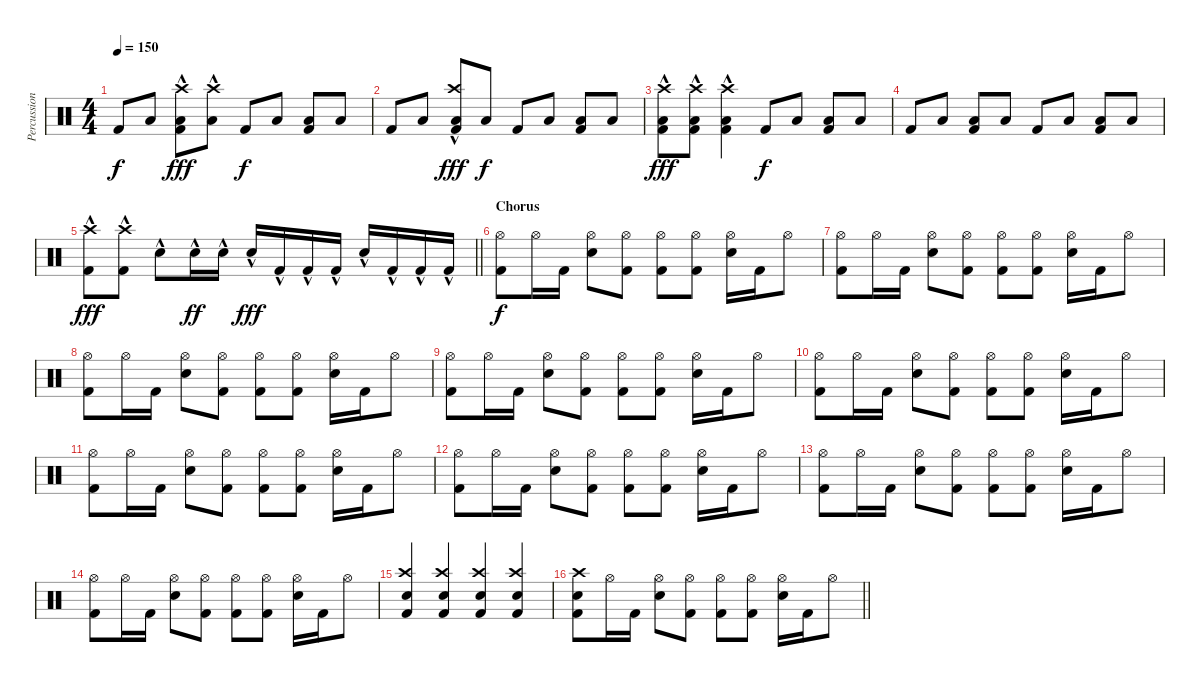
\track ("Percussion" "Percussion") {instrument percussion}
\staff {score}
\articulation defaults
\ts (4 4)
\tempo 150
\clef neutral
\ks c "Kick (hit) 2".8{dy f} "Low Floor Tom (hit)".8
("Crash high (hit)"{hac} "Low Tom (hit)" "Kick (hit) 2").8{dy fff} ("Crash high (hit)"{hac} "Low Floor Tom (hit)").8 "Kick (hit) 2".8{dy f} "Low Floor Tom (hit)".8 ("Low Tom (hit)" "Kick (hit) 2").8 "Low Floor Tom (hit)".8 |
"Kick (hit) 2".8 "Low Floor Tom (hit)".8 ("Crash high (hit)"{hac} "Low Tom (hit)" "Kick (hit) 2").8{dy fff} "Low Floor Tom (hit)".8{dy f} "Kick (hit) 2".8 "Low Floor Tom (hit)".8 ("Low Tom (hit)" "Kick (hit) 2").8 "Low Floor Tom (hit)".8 |
("Crash high (hit)"{hac} "Low Floor Tom (hit)"{hac} "Kick (hit) 2"{hac}).8{dy fff} ("Crash high (hit)"{hac} "Low Floor Tom (hit)"{hac} "Kick (hit) 2"{hac}).8 ("Crash high (hit)"{hac} "Low Floor Tom (hit)"{hac} "Kick (hit) 2"{hac}).4 "Kick (hit) 2".8{dy f} "Low Floor Tom (hit)".8 ("Low Tom (hit)" "Kick (hit) 2").8 "Low Floor Tom (hit)".8 |
"Kick (hit) 2".8 "Low Floor Tom (hit)".8 ("Low Tom (hit)" "Kick (hit) 2").8 "Low Floor Tom (hit)".8 "Kick (hit) 2".8 "Low Floor Tom (hit)".8 ("Low Tom (hit)" "Kick (hit) 2").8 "Low Floor Tom (hit)".8 |
\barLineRight lightlight
("Crash high (hit)"{hac} "Kick (hit) 2"{hac}).8{dy fff} ("Crash high (hit)"{hac} "Kick (hit) 2"{hac}).8 "Snare (hit) 2"{hac}.8 "Snare (hit) 2"{hac}.16{dy ff} "Snare (hit) 2"{hac}.16 "Snare (hit) 2"{hac}.16{dy fff} "Kick (hit) 2"{hac}.16 "Kick (hit) 2"{hac}.16 "Kick (hit) 2"{hac}.16 "Snare (hit) 2"{hac}.16 "Kick (hit) 2"{hac}.16 "Kick (hit) 2"{hac}.16 "Kick (hit) 2"{hac}.16 |
\section ("" "Chorus")
("Hi-Hat (open)" "Kick (hit) 2").8{dy f} "Hi-Hat (open)".16 "Kick (hit) 2".16 ("Hi-Hat (open)" "Snare (hit) 2").8 ("Hi-Hat (open)" "Kick (hit) 2").8 ("Hi-Hat (open)" "Kick (hit) 2").8 ("Hi-Hat (open)" "Kick (hit) 2").8 ("Hi-Hat (open)" "Snare (hit) 2").16 "Kick (hit) 2".16 "Hi-Hat (open)".8 |
("Hi-Hat (open)" "Kick (hit) 2").8 "Hi-Hat (open)".16 "Kick (hit) 2".16 ("Hi-Hat (open)" "Snare (hit) 2").8 ("Hi-Hat (open)" "Kick (hit) 2").8 ("Hi-Hat (open)" "Kick (hit) 2").8 ("Hi-Hat (open)" "Kick (hit) 2").8 ("Hi-Hat (open)" "Snare (hit) 2").16 "Kick (hit) 2".16 "Hi-Hat (open)".8 |
("Hi-Hat (open)" "Kick (hit) 2").8 "Hi-Hat (open)".16 "Kick (hit) 2".16 ("Hi-Hat (open)" "Snare (hit) 2").8 ("Hi-Hat (open)" "Kick (hit) 2").8 ("Hi-Hat (open)" "Kick (hit) 2").8 ("Hi-Hat (open)" "Kick (hit) 2").8 ("Hi-Hat (open)" "Snare (hit) 2").16 "Kick (hit) 2".16 "Hi-Hat (open)".8 |
("Hi-Hat (open)" "Kick (hit) 2").8 "Hi-Hat (open)".16 "Kick (hit) 2".16 ("Hi-Hat (open)" "Snare (hit) 2").8 ("Hi-Hat (open)" "Kick (hit) 2").8 ("Hi-Hat (open)" "Kick (hit) 2").8 ("Hi-Hat (open)" "Kick (hit) 2").8 ("Hi-Hat (open)" "Snare (hit) 2").16 "Kick (hit) 2".16 "Hi-Hat (open)".8 |
("Hi-Hat (open)" "Kick (hit) 2").8 "Hi-Hat (open)".16 "Kick (hit) 2".16 ("Hi-Hat (open)" "Snare (hit) 2").8 ("Hi-Hat (open)" "Kick (hit) 2").8 ("Hi-Hat (open)" "Kick (hit) 2").8 ("Hi-Hat (open)" "Kick (hit) 2").8 ("Hi-Hat (open)" "Snare (hit) 2").16 "Kick (hit) 2".16 "Hi-Hat (open)".8 |
("Hi-Hat (open)" "Kick (hit) 2").8 "Hi-Hat (open)".16 "Kick (hit) 2".16 ("Hi-Hat (open)" "Snare (hit) 2").8 ("Hi-Hat (open)" "Kick (hit) 2").8 ("Hi-Hat (open)" "Kick (hit) 2").8 ("Hi-Hat (open)" "Kick (hit) 2").8 ("Hi-Hat (open)" "Snare (hit) 2").16 "Kick (hit) 2".16 "Hi-Hat (open)".8 |
("Hi-Hat (open)" "Kick (hit) 2").8 "Hi-Hat (open)".16 "Kick (hit) 2".16 ("Hi-Hat (open)" "Snare (hit) 2").8 ("Hi-Hat (open)" "Kick (hit) 2").8 ("Hi-Hat (open)" "Kick (hit) 2").8 ("Hi-Hat (open)" "Kick (hit) 2").8 ("Hi-Hat (open)" "Snare (hit) 2").16 "Kick (hit) 2".16 "Hi-Hat (open)".8 |
("Hi-Hat (open)" "Kick (hit) 2").8 "Hi-Hat (open)".16 "Kick (hit) 2".16 ("Hi-Hat (open)" "Snare (hit) 2").8 ("Hi-Hat (open)" "Kick (hit) 2").8 ("Hi-Hat (open)" "Kick (hit) 2").8 ("Hi-Hat (open)" "Kick (hit) 2").8 ("Hi-Hat (open)" "Snare (hit) 2").16 "Kick (hit) 2".16 "Hi-Hat (open)".8 |
("Hi-Hat (open)" "Kick (hit) 2").8 "Hi-Hat (open)".16 "Kick (hit) 2".16 ("Hi-Hat (open)" "Snare (hit) 2").8 ("Hi-Hat (open)" "Kick (hit) 2").8 ("Hi-Hat (open)" "Kick (hit) 2").8 ("Hi-Hat (open)" "Kick (hit) 2").8 ("Hi-Hat (open)" "Snare (hit) 2").16 "Kick (hit) 2".16 "Hi-Hat (open)".8 |
("Crash high (hit)" "Snare (hit) 2" "Kick (hit) 2").4 ("Crash high (hit)" "Snare (hit) 2" "Kick (hit) 2").4 ("Crash high (hit)" "Snare (hit) 2" "Kick (hit) 2").4 ("Crash high (hit)" "Snare (hit) 2" "Kick (hit) 2").4 |
\barLineRight lightlight
("Crash high (hit)" "Snare (hit) 2" "Kick (hit) 2").8 "Hi-Hat (open)".16 "Kick (hit) 2".16 ("Hi-Hat (open)" "Snare (hit) 2").8 ("Hi-Hat (open)" "Kick (hit) 2").8 ("Hi-Hat (open)" "Kick (hit) 2").8 ("Hi-Hat (open)" "Kick (hit) 2").8 ("Hi-Hat (open)" "Snare (hit) 2").16 "Kick (hit) 2".16 "Hi-Hat (open)".8
